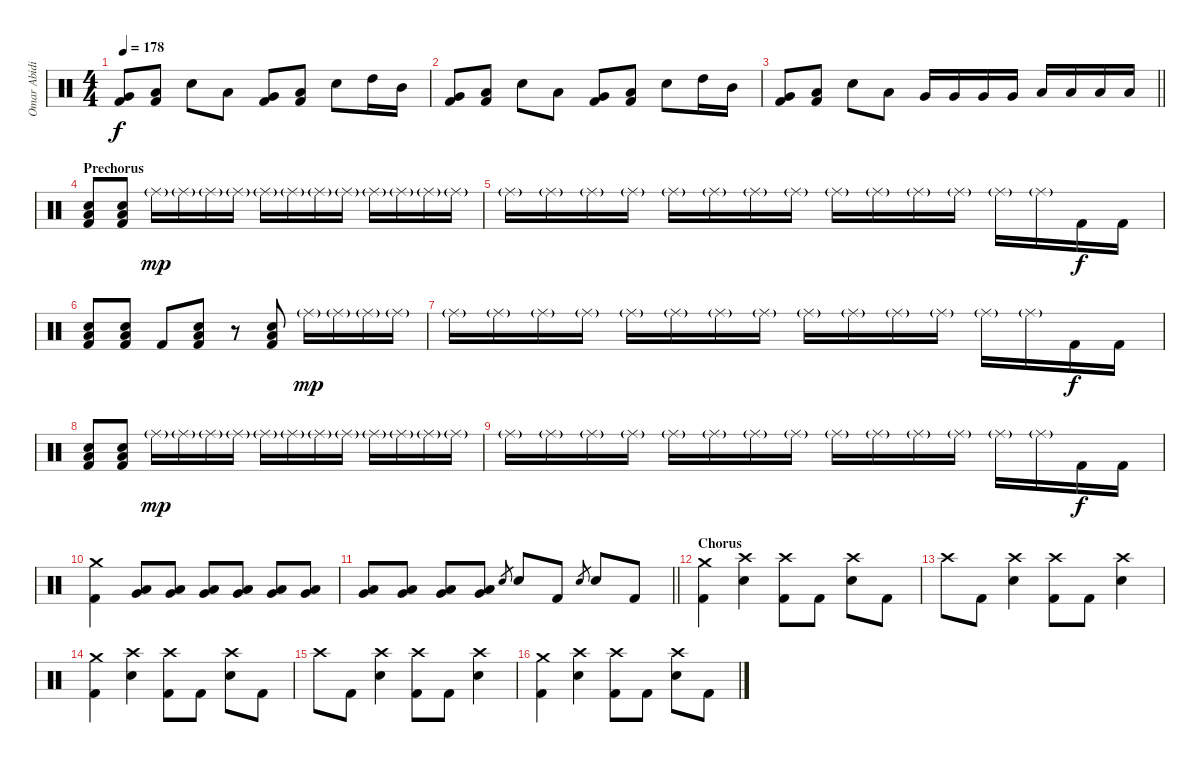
\track ("Omar Abidi" "Omar Abidi") {instrument percussion}
\staff {score}
\articulation defaults
\ts (4 4)
\tempo 178
\clef neutral
\ks c
("Very Low Tom (hit)" "Kick (hit) 2").8{dy f} ("Low Floor Tom (hit)" "Kick (hit) 2").8 "Electric Snare (hit)".8 "Low Floor Tom (hit)".8 ("Very Low Tom (hit)" "Kick (hit) 2").8 ("Low Floor Tom (hit)" "Kick (hit) 2").8 "Electric Snare (hit)".8 "High Tom (hit)".16 "Mid Tom (hit)".16 |
("Very Low Tom (hit)" "Kick (hit) 2").8 ("Low Floor Tom (hit)" "Kick (hit) 2").8 "Electric Snare (hit)".8 "Low Floor Tom (hit)".8 ("Very Low Tom (hit)" "Kick (hit) 2").8 ("Low Floor Tom (hit)" "Kick (hit) 2").8 "Electric Snare (hit)".8 "High Tom (hit)".16 "Mid Tom (hit)".16 |
\barLineRight lightlight
("Very Low Tom (hit)" "Kick (hit) 2").8 ("Low Floor Tom (hit)" "Kick (hit) 2").8 "Electric Snare (hit)".8 "Low Floor Tom (hit)".8 "Very Low Tom (hit)".16 "Very Low Tom (hit)".16 "Very Low Tom (hit)".16 "Very Low Tom (hit)".16 "Low Floor Tom (hit)".16 "Low Floor Tom (hit)".16 "Low Floor Tom (hit)".16 "Low Floor Tom (hit)".16 |
\section ("" "Prechorus")
("Electric Snare (hit)" "Low Floor Tom (hit)" "Kick (hit) 2").8 ("Electric Snare (hit)" "Low Floor Tom (hit)" "Kick (hit) 2").8 "Ride (middle)"{g}.16{dy mp} "Ride (middle)"{g}.16 "Ride (middle)"{g}.16 "Ride (middle)"{g}.16 "Ride (middle)"{g}.16 "Ride (middle)"{g}.16 "Ride (middle)"{g}.16 "Ride (middle)"{g}.16 "Ride (middle)"{g}.16 "Ride (middle)"{g}.16 "Ride (middle)"{g}.16 "Ride (middle)"{g}.16 |
"Ride (middle)"{g}.16 "Ride (middle)"{g}.16 "Ride (middle)"{g}.16 "Ride (middle)"{g}.16 "Ride (middle)"{g}.16 "Ride (middle)"{g}.16 "Ride (middle)"{g}.16 "Ride (middle)"{g}.16 "Ride (middle)"{g}.16 "Ride (middle)"{g}.16 "Ride (middle)"{g}.16 "Ride (middle)"{g}.16 "Ride (middle)"{g}.16 "Ride (middle)"{g}.16 "Kick (hit) 2".16{dy f} "Kick (hit) 2".16 |
("Electric Snare (hit)" "Low Floor Tom (hit)" "Kick (hit) 2").8 ("Electric Snare (hit)" "Low Floor Tom (hit)" "Kick (hit) 2").8 "Kick (hit) 2".8 ("Electric Snare (hit)" "Low Floor Tom (hit)" "Kick (hit) 2").8 r.8 ("Electric Snare (hit)" "Low Floor Tom (hit)" "Kick (hit) 2").8 "Ride (middle)"{g}.16{dy mp} "Ride (middle)"{g}.16 "Ride (middle)"{g}.16 "Ride (middle)"{g}.16 |
"Ride (middle)"{g}.16 "Ride (middle)"{g}.16 "Ride (middle)"{g}.16 "Ride (middle)"{g}.16 "Ride (middle)"{g}.16 "Ride (middle)"{g}.16 "Ride (middle)"{g}.16 "Ride (middle)"{g}.16 "Ride (middle)"{g}.16 "Ride (middle)"{g}.16 "Ride (middle)"{g}.16 "Ride (middle)"{g}.16 "Ride (middle)"{g}.16 "Ride (middle)"{g}.16 "Kick (hit) 2".16{dy f} "Kick (hit) 2".16 |
("Electric Snare (hit)" "Low Floor Tom (hit)" "Kick (hit) 2").8 ("Electric Snare (hit)" "Low Floor Tom (hit)" "Kick (hit) 2").8 "Ride (middle)"{g}.16{dy mp} "Ride (middle)"{g}.16 "Ride (middle)"{g}.16 "Ride (middle)"{g}.16 "Ride (middle)"{g}.16 "Ride (middle)"{g}.16 "Ride (middle)"{g}.16 "Ride (middle)"{g}.16 "Ride (middle)"{g}.16 "Ride (middle)"{g}.16 "Ride (middle)"{g}.16 "Ride (middle)"{g}.16 |
"Ride (middle)"{g}.16 "Ride (middle)"{g}.16 "Ride (middle)"{g}.16 "Ride (middle)"{g}.16 "Ride (middle)"{g}.16 "Ride (middle)"{g}.16 "Ride (middle)"{g}.16 "Ride (middle)"{g}.16 "Ride (middle)"{g}.16 "Ride (middle)"{g}.16 "Ride (middle)"{g}.16 "Ride (middle)"{g}.16 "Ride (middle)"{g}.16 "Ride (middle)"{g}.16 "Kick (hit) 2".16{dy f} "Kick (hit) 2".16 |
("Crash medium (hit)" "Kick (hit) 2").4 ("Very Low Tom (hit)" "Low Floor Tom (hit)").8 ("Very Low Tom (hit)" "Low Floor Tom (hit)").8 ("Very Low Tom (hit)" "Low Floor Tom (hit)").8 ("Very Low Tom (hit)" "Low Floor Tom (hit)").8 ("Very Low Tom (hit)" "Low Floor Tom (hit)").8 ("Very Low Tom (hit)" "Low Floor Tom (hit)").8 |
\barLineRight lightlight
("Very Low Tom (hit)" "Low Floor Tom (hit)").8 ("Very Low Tom (hit)" "Low Floor Tom (hit)").8 ("Very Low Tom (hit)" "Low Floor Tom (hit)").8 ("Very Low Tom (hit)" "Low Floor Tom (hit)").8 "Electric Snare (hit)".8{gr} "Electric Snare (hit)".8 "Kick (hit) 2".8 "Electric Snare (hit)".8{gr} "Electric Snare (hit)".8 "Kick (hit) 2".8 |
\section ("" "Chorus")
("Crash medium (hit)" "Kick (hit) 2").4 ("Crash high (hit)" "Electric Snare (hit)").4 ("Crash high (hit)" "Kick (hit) 2").8 "Kick (hit) 2".8 ("Crash high (hit)" "Electric Snare (hit)").8 "Kick (hit) 2".8 |
"Crash high (hit)".8 "Kick (hit) 2".8 ("Crash high (hit)" "Electric Snare (hit)").4 ("Crash high (hit)" "Kick (hit) 2").8 "Kick (hit) 2".8 ("Crash high (hit)" "Electric Snare (hit)").4 |
("Crash medium (hit)" "Kick (hit) 2").4 ("Crash high (hit)" "Electric Snare (hit)").4 ("Crash high (hit)" "Kick (hit) 2").8 "Kick (hit) 2".8 ("Crash high (hit)" "Electric Snare (hit)").8 "Kick (hit) 2".8 |
"Crash high (hit)".8 "Kick (hit) 2".8 ("Crash high (hit)" "Electric Snare (hit)").4 ("Crash high (hit)" "Kick (hit) 2").8 "Kick (hit) 2".8 ("Crash high (hit)" "Electric Snare (hit)").4 |
("Crash medium (hit)" "Kick (hit) 2").4 ("Crash high (hit)" "Electric Snare (hit)").4 ("Crash high (hit)" "Kick (hit) 2").8 "Kick (hit) 2".8 ("Crash high (hit)" "Electric Snare (hit)").8 "Kick (hit) 2".8
